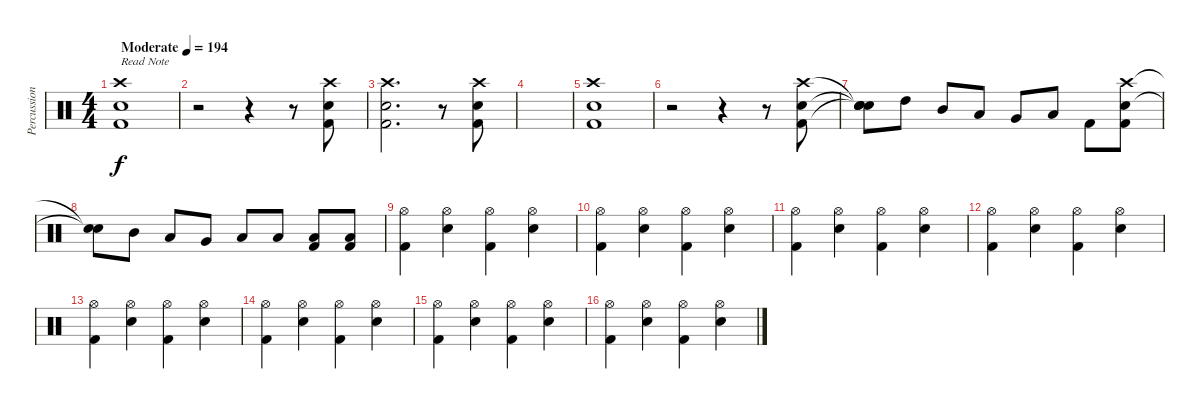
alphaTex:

\track ("Percussion" "Percussion") {instrument percussion}
\staff {score}
\articulation defaults
\ts (4 4)
\tempo (194 "Moderate")
\clef neutral
\ks c
("Crash high (hit)" "Electric Snare (hit)" "Kick (hit) 2").1{txt "Read Note" dy f} |
r.2 r.4 r.8 ("Crash high (hit)" "Electric Snare (hit)" "Kick (hit) 2").8 |
("Crash high (hit)" "Electric Snare (hit)" "Kick (hit) 2").2{d} r.8 ("Crash high (hit)" "Electric Snare (hit)" "Kick (hit) 2").8 |
|
("Crash high (hit)" "Electric Snare (hit)" "Kick (hit) 2").1 |
r.2 r.4 r.8 ("Crash high (hit)" "Electric Snare (hit)" "Kick (hit) 2").8 |
("Snare (hit)"{t} "Snare (hit)"{t} "Snare (hit)"{t} "Snare (hit)").8 "High Tom (hit)".8 "Mid Tom (hit)".8 "Low Tom (hit)".8 "Very Low Tom (hit)".8 "Low Floor Tom (hit)".8 "Kick (hit) 2".8 ("Crash high (hit)" "Electric Snare (hit)" "Kick (hit) 2").8 |
("Snare (hit)"{t} "Snare (hit)"{t}).8 "Mid Tom (hit)".8 "Low Tom (hit)".8 "Very Low Tom (hit)".8 "Low Floor Tom (hit)".8 "Low Floor Tom (hit)".8 ("Low Floor Tom (hit)" "Kick (hit) 2").8 ("Low Floor Tom (hit)" "Kick (hit) 2").8 |
("Hi-Hat (open)" "Kick (hit) 2").4 ("Hi-Hat (open)" "Electric Snare (hit)").4 ("Hi-Hat (open)" "Kick (hit) 2").4 ("Hi-Hat (open)" "Electric Snare (hit)").4 |
("Hi-Hat (open)" "Kick (hit) 2").4 ("Hi-Hat (open)" "Electric Snare (hit)").4 ("Hi-Hat (open)" "Kick (hit) 2").4 ("Hi-Hat (open)" "Electric Snare (hit)").4 |
("Hi-Hat (open)" "Kick (hit) 2").4 ("Hi-Hat (open)" "Electric Snare (hit)").4 ("Hi-Hat (open)" "Kick (hit) 2").4 ("Hi-Hat (open)" "Electric Snare (hit)").4 |
("Hi-Hat (open)" "Kick (hit) 2").4 ("Hi-Hat (open)" "Electric Snare (hit)").4 ("Hi-Hat (open)" "Kick (hit) 2").4 ("Hi-Hat (open)" "Electric Snare (hit)").4 |
("Hi-Hat (open)" "Kick (hit) 2").4 ("Hi-Hat (open)" "Electric Snare (hit)").4 ("Hi-Hat (open)" "Kick (hit) 2").4 ("Hi-Hat (open)" "Electric Snare (hit)").4 |
("Hi-Hat (open)" "Kick (hit) 2").4 ("Hi-Hat (open)" "Electric Snare (hit)").4 ("Hi-Hat (open)" "Kick (hit) 2").4 ("Hi-Hat (open)" "Electric Snare (hit)").4 |
("Hi-Hat (open)" "Kick (hit) 2").4 ("Hi-Hat (open)" "Electric Snare (hit)").4 ("Hi-Hat (open)" "Kick (hit) 2").4 ("Hi-Hat (open)" "Electric Snare (hit)").4 |
("Hi-Hat (open)" "Kick (hit) 2").4 ("Hi-Hat (open)" "Electric Snare (hit)").4 ("Hi-Hat (open)" "Kick (hit) 2").4 ("Hi-Hat (open)" "Electric Snare (hit)").4
